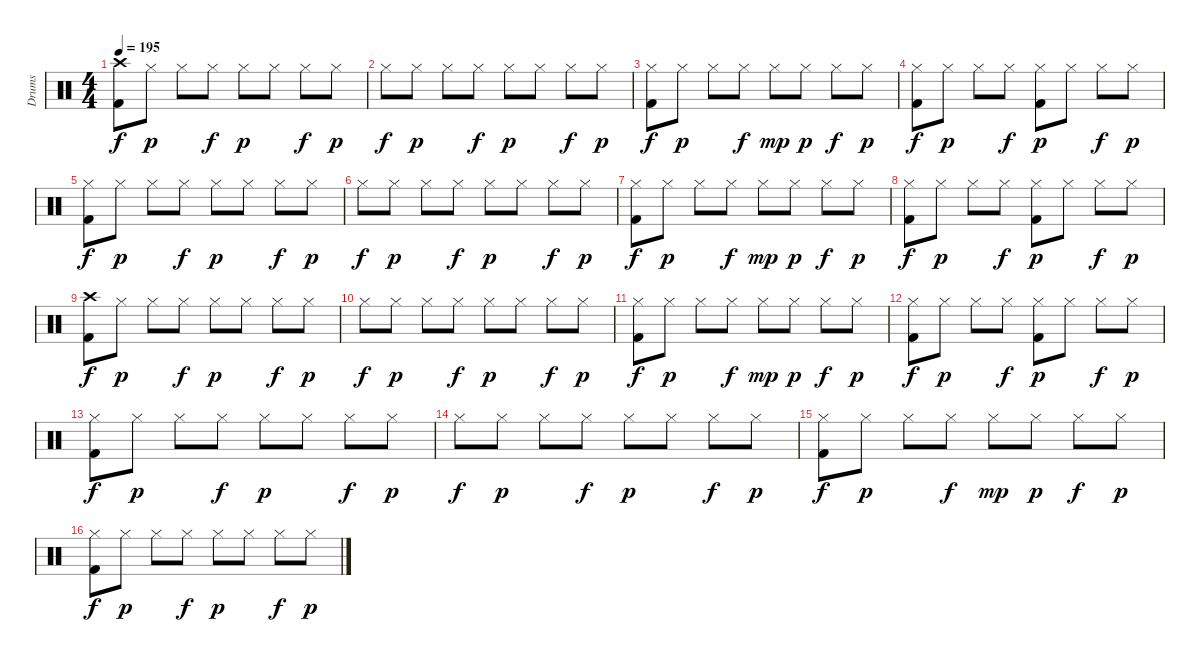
\track ("Drums" "Drums") {instrument percussion}
\staff {score}
\articulation defaults
\ts (4 4)
\tempo 195
\clef neutral
\ks c
("Crash high (hit)" "Kick (hit) 2").8{dy f} "Hi-Hat (closed)".8{dy p} "Hi-Hat (closed)".8 "Hi-Hat (closed)".8{dy f} "Hi-Hat (closed)".8{dy p} "Hi-Hat (closed)".8 "Hi-Hat (closed)".8{dy f} "Hi-Hat (closed)".8{dy p} |
"Hi-Hat (closed)".8{dy f} "Hi-Hat (closed)".8{dy p} "Hi-Hat (closed)".8 "Hi-Hat (closed)".8{dy f} "Hi-Hat (closed)".8{dy p} "Hi-Hat (closed)".8 "Hi-Hat (closed)".8{dy f} "Hi-Hat (closed)".8{dy p} |
("Hi-Hat (closed)" "Kick (hit) 2").8{dy f} "Hi-Hat (closed)".8{dy p} "Hi-Hat (closed)".8 "Hi-Hat (closed)".8{dy f} "Hi-Hat (closed)".8{dy mp} "Hi-Hat (closed)".8{dy p} "Hi-Hat (closed)".8{dy f} "Hi-Hat (closed)".8{dy p} |
("Hi-Hat (closed)" "Kick (hit) 2").8{dy f} "Hi-Hat (closed)".8{dy p} "Hi-Hat (closed)".8 "Hi-Hat (closed)".8{dy f} ("Hi-Hat (closed)" "Kick (hit) 2").8{dy p} "Hi-Hat (closed)".8 "Hi-Hat (closed)".8{dy f} "Hi-Hat (closed)".8{dy p} |
("Hi-Hat (closed)" "Kick (hit) 2").8{dy f} "Hi-Hat (closed)".8{dy p} "Hi-Hat (closed)".8 "Hi-Hat (closed)".8{dy f} "Hi-Hat (closed)".8{dy p} "Hi-Hat (closed)".8 "Hi-Hat (closed)".8{dy f} "Hi-Hat (closed)".8{dy p} |
"Hi-Hat (closed)".8{dy f} "Hi-Hat (closed)".8{dy p} "Hi-Hat (closed)".8 "Hi-Hat (closed)".8{dy f} "Hi-Hat (closed)".8{dy p} "Hi-Hat (closed)".8 "Hi-Hat (closed)".8{dy f} "Hi-Hat (closed)".8{dy p} |
("Hi-Hat (closed)" "Kick (hit) 2").8{dy f} "Hi-Hat (closed)".8{dy p} "Hi-Hat (closed)".8 "Hi-Hat (closed)".8{dy f} "Hi-Hat (closed)".8{dy mp} "Hi-Hat (closed)".8{dy p} "Hi-Hat (closed)".8{dy f} "Hi-Hat (closed)".8{dy p} |
("Hi-Hat (closed)" "Kick (hit) 2").8{dy f} "Hi-Hat (closed)".8{dy p} "Hi-Hat (closed)".8 "Hi-Hat (closed)".8{dy f} ("Hi-Hat (closed)" "Kick (hit) 2").8{dy p} "Hi-Hat (closed)".8 "Hi-Hat (closed)".8{dy f} "Hi-Hat (closed)".8{dy p} |
("Crash high (hit)" "Kick (hit) 2").8{dy f} "Hi-Hat (closed)".8{dy p} "Hi-Hat (closed)".8 "Hi-Hat (closed)".8{dy f} "Hi-Hat (closed)".8{dy p} "Hi-Hat (closed)".8 "Hi-Hat (closed)".8{dy f} "Hi-Hat (closed)".8{dy p} |
"Hi-Hat (closed)".8{dy f} "Hi-Hat (closed)".8{dy p} "Hi-Hat (closed)".8 "Hi-Hat (closed)".8{dy f} "Hi-Hat (closed)".8{dy p} "Hi-Hat (closed)".8 "Hi-Hat (closed)".8{dy f} "Hi-Hat (closed)".8{dy p} |
("Hi-Hat (closed)" "Kick (hit) 2").8{dy f} "Hi-Hat (closed)".8{dy p} "Hi-Hat (closed)".8 "Hi-Hat (closed)".8{dy f} "Hi-Hat (closed)".8{dy mp} "Hi-Hat (closed)".8{dy p} "Hi-Hat (closed)".8{dy f} "Hi-Hat (closed)".8{dy p} |
("Hi-Hat (closed)" "Kick (hit) 2").8{dy f} "Hi-Hat (closed)".8{dy p} "Hi-Hat (closed)".8 "Hi-Hat (closed)".8{dy f} ("Hi-Hat (closed)" "Kick (hit) 2").8{dy p} "Hi-Hat (closed)".8 "Hi-Hat (closed)".8{dy f} "Hi-Hat (closed)".8{dy p} |
("Hi-Hat (closed)" "Kick (hit) 2").8{dy f} "Hi-Hat (closed)".8{dy p} "Hi-Hat (closed)".8 "Hi-Hat (closed)".8{dy f} "Hi-Hat (closed)".8{dy p} "Hi-Hat (closed)".8 "Hi-Hat (closed)".8{dy f} "Hi-Hat (closed)".8{dy p} |
"Hi-Hat (closed)".8{dy f} "Hi-Hat (closed)".8{dy p} "Hi-Hat (closed)".8 "Hi-Hat (closed)".8{dy f} "Hi-Hat (closed)".8{dy p} "Hi-Hat (closed)".8 "Hi-Hat (closed)".8{dy f} "Hi-Hat (closed)".8{dy p} |
("Hi-Hat (closed)" "Kick (hit) 2").8{dy f} "Hi-Hat (closed)".8{dy p} "Hi-Hat (closed)".8 "Hi-Hat (closed)".8{dy f} "Hi-Hat (closed)".8{dy mp} "Hi-Hat (closed)".8{dy p} "Hi-Hat (closed)".8{dy f} "Hi-Hat (closed)".8{dy p} |
("Hi-Hat (closed)" "Kick (hit) 2").8{dy f} "Hi-Hat (closed)".8{dy p} "Hi-Hat (closed)".8 "Hi-Hat (closed)".8{dy f} "Hi-Hat (closed)".8{dy p} "Hi-Hat (closed)".8 "Hi-Hat (closed)".8{dy f} "Hi-Hat (closed)".8{dy p}
